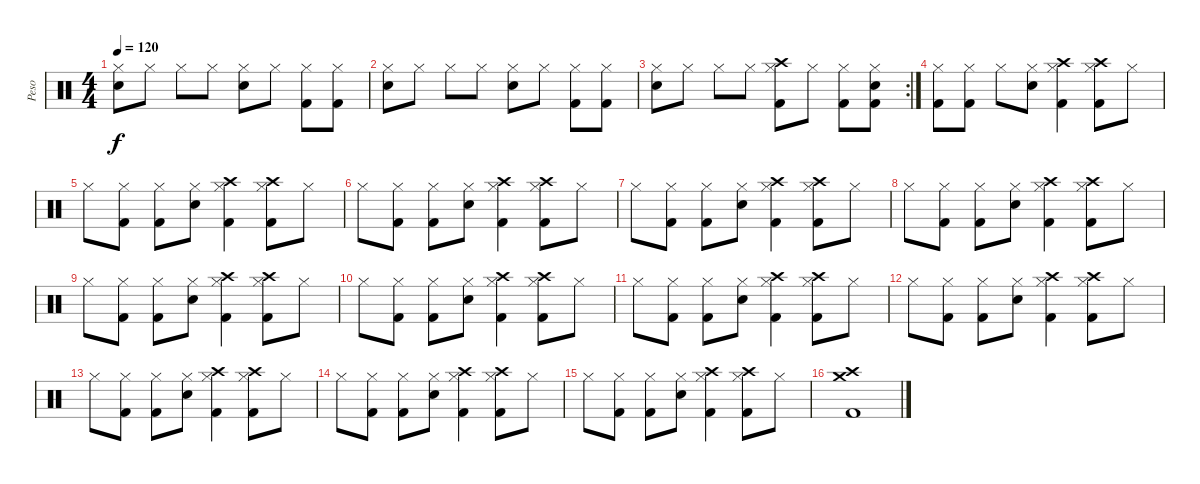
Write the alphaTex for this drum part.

\track ("Peso" "Peso") {instrument percussion}
\staff {score}
\articulation defaults
\ts (4 4)
\tempo 120
\clef neutral
\ks c
("Hi-Hat (closed)" "Snare (hit) 2").8{dy f} "Hi-Hat (closed)".8 "Hi-Hat (closed)".8 "Hi-Hat (closed)".8 ("Hi-Hat (closed)" "Snare (hit) 2").8 "Hi-Hat (closed)".8 ("Hi-Hat (closed)" "Kick (hit) 2").8 ("Hi-Hat (closed)" "Kick (hit) 2").8 |
("Hi-Hat (closed)" "Snare (hit) 2").8 "Hi-Hat (closed)".8 "Hi-Hat (closed)".8 "Hi-Hat (closed)".8 ("Hi-Hat (closed)" "Snare (hit) 2").8 "Hi-Hat (closed)".8 ("Hi-Hat (closed)" "Kick (hit) 2").8 ("Hi-Hat (closed)" "Kick (hit) 2").8 |
\rc 2
("Hi-Hat (closed)" "Snare (hit) 2").8 "Hi-Hat (closed)".8 "Hi-Hat (closed)".8 "Hi-Hat (closed)".8 ("Crash high (hit)" "Hi-Hat (closed)" "Kick (hit) 2").8 "Hi-Hat (closed)".8 ("Hi-Hat (closed)" "Kick (hit) 2").8 ("Hi-Hat (closed)" "Snare (hit) 2" "Kick (hit) 2").8 |
("Hi-Hat (closed)" "Kick (hit) 2").8 ("Hi-Hat (closed)" "Kick (hit) 2").8 "Hi-Hat (closed)".8 ("Hi-Hat (closed)" "Snare (hit) 2").8 ("Crash high (hit)" "Hi-Hat (closed)" "Kick (hit) 2").4 ("Crash high (hit)" "Hi-Hat (closed)" "Kick (hit) 2").8 "Hi-Hat (closed)".8 |
"Hi-Hat (closed)".8 ("Hi-Hat (closed)" "Kick (hit) 2").8 ("Hi-Hat (closed)" "Kick (hit) 2").8 ("Hi-Hat (closed)" "Snare (hit) 2").8 ("Crash high (hit)" "Hi-Hat (closed)" "Kick (hit) 2").4 ("Crash high (hit)" "Hi-Hat (closed)" "Kick (hit) 2").8 "Hi-Hat (closed)".8 |
"Hi-Hat (closed)".8 ("Hi-Hat (closed)" "Kick (hit) 2").8 ("Hi-Hat (closed)" "Kick (hit) 2").8 ("Hi-Hat (closed)" "Snare (hit) 2").8 ("Crash high (hit)" "Hi-Hat (closed)" "Kick (hit) 2").4 ("Crash high (hit)" "Hi-Hat (closed)" "Kick (hit) 2").8 "Hi-Hat (closed)".8 |
"Hi-Hat (closed)".8 ("Hi-Hat (closed)" "Kick (hit) 2").8 ("Hi-Hat (closed)" "Kick (hit) 2").8 ("Hi-Hat (closed)" "Snare (hit) 2").8 ("Crash high (hit)" "Hi-Hat (closed)" "Kick (hit) 2").4 ("Crash high (hit)" "Hi-Hat (closed)" "Kick (hit) 2").8 "Hi-Hat (closed)".8 |
"Hi-Hat (closed)".8 ("Hi-Hat (closed)" "Kick (hit) 2").8 ("Hi-Hat (closed)" "Kick (hit) 2").8 ("Hi-Hat (closed)" "Snare (hit) 2").8 ("Crash high (hit)" "Hi-Hat (closed)" "Kick (hit) 2").4 ("Crash high (hit)" "Hi-Hat (closed)" "Kick (hit) 2").8 "Hi-Hat (closed)".8 |
"Hi-Hat (closed)".8 ("Hi-Hat (closed)" "Kick (hit) 2").8 ("Hi-Hat (closed)" "Kick (hit) 2").8 ("Hi-Hat (closed)" "Snare (hit) 2").8 ("Crash high (hit)" "Hi-Hat (closed)" "Kick (hit) 2").4 ("Crash high (hit)" "Hi-Hat (closed)" "Kick (hit) 2").8 "Hi-Hat (closed)".8 |
"Hi-Hat (closed)".8 ("Hi-Hat (closed)" "Kick (hit) 2").8 ("Hi-Hat (closed)" "Kick (hit) 2").8 ("Hi-Hat (closed)" "Snare (hit) 2").8 ("Crash high (hit)" "Hi-Hat (closed)" "Kick (hit) 2").4 ("Crash high (hit)" "Hi-Hat (closed)" "Kick (hit) 2").8 "Hi-Hat (closed)".8 |
"Hi-Hat (closed)".8 ("Hi-Hat (closed)" "Kick (hit) 2").8 ("Hi-Hat (closed)" "Kick (hit) 2").8 ("Hi-Hat (closed)" "Snare (hit) 2").8 ("Crash high (hit)" "Hi-Hat (closed)" "Kick (hit) 2").4 ("Crash high (hit)" "Hi-Hat (closed)" "Kick (hit) 2").8 "Hi-Hat (closed)".8 |
"Hi-Hat (closed)".8 ("Hi-Hat (closed)" "Kick (hit) 2").8 ("Hi-Hat (closed)" "Kick (hit) 2").8 ("Hi-Hat (closed)" "Snare (hit) 2").8 ("Crash high (hit)" "Hi-Hat (closed)" "Kick (hit) 2").4 ("Crash high (hit)" "Hi-Hat (closed)" "Kick (hit) 2").8 "Hi-Hat (closed)".8 |
"Hi-Hat (closed)".8 ("Hi-Hat (closed)" "Kick (hit) 2").8 ("Hi-Hat (closed)" "Kick (hit) 2").8 ("Hi-Hat (closed)" "Snare (hit) 2").8 ("Crash high (hit)" "Hi-Hat (closed)" "Kick (hit) 2").4 ("Crash high (hit)" "Hi-Hat (closed)" "Kick (hit) 2").8 "Hi-Hat (closed)".8 |
"Hi-Hat (closed)".8 ("Hi-Hat (closed)" "Kick (hit) 2").8 ("Hi-Hat (closed)" "Kick (hit) 2").8 ("Hi-Hat (closed)" "Snare (hit) 2").8 ("Crash high (hit)" "Hi-Hat (closed)" "Kick (hit) 2").4 ("Crash high (hit)" "Hi-Hat (closed)" "Kick (hit) 2").8 "Hi-Hat (closed)".8 |
"Hi-Hat (closed)".8 ("Hi-Hat (closed)" "Kick (hit) 2").8 ("Hi-Hat (closed)" "Kick (hit) 2").8 ("Hi-Hat (closed)" "Snare (hit) 2").8 ("Crash high (hit)" "Hi-Hat (closed)" "Kick (hit) 2").4 ("Crash high (hit)" "Hi-Hat (closed)" "Kick (hit) 2").8 "Hi-Hat (closed)".8 |
("Crash high (hit)" "Crash medium (hit)" "Kick (hit) 2").1
